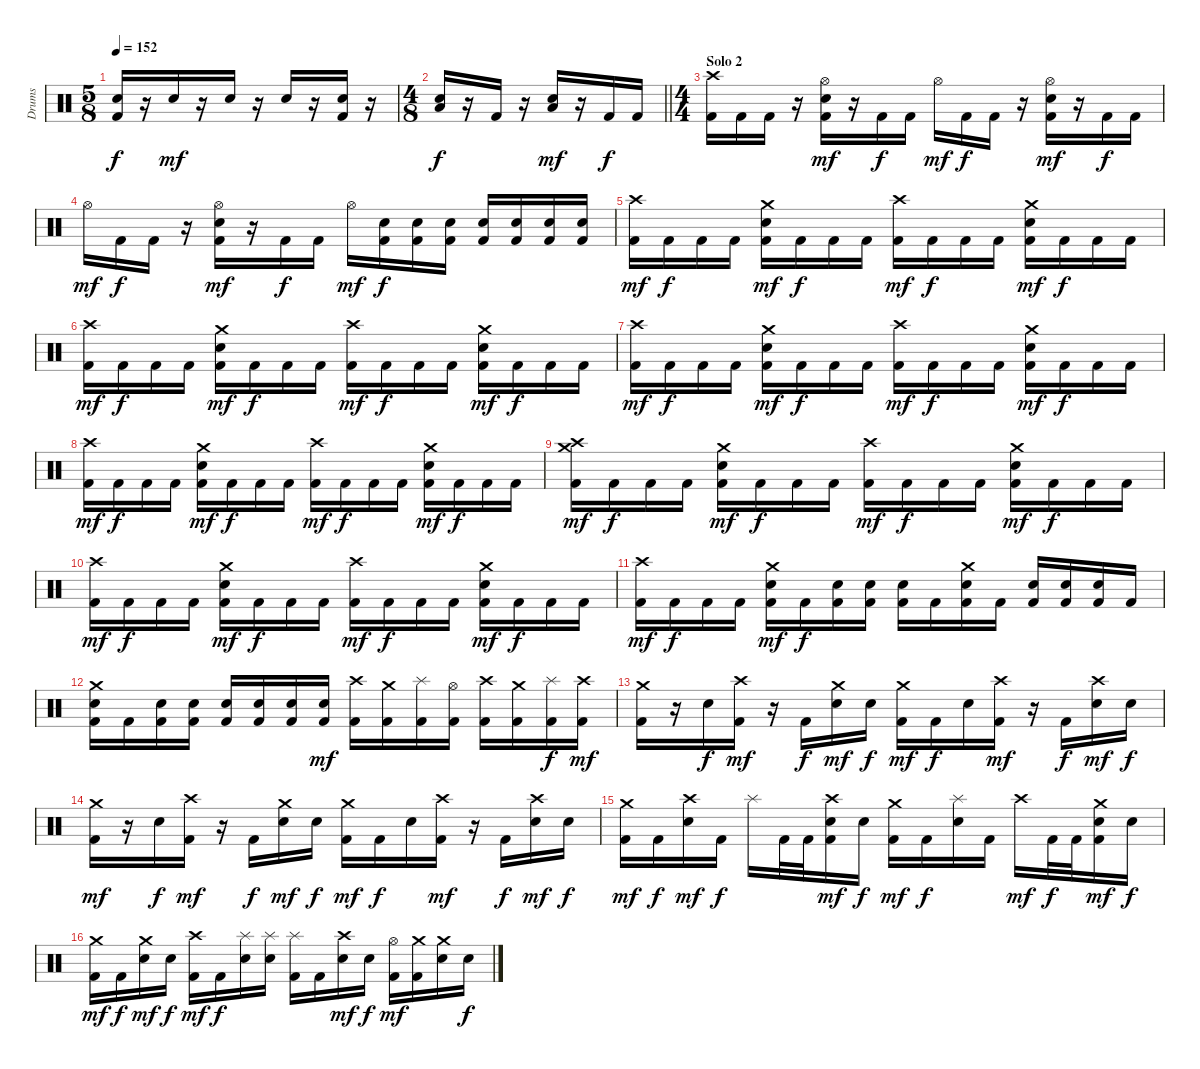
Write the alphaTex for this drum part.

\track ("Drums" "Drums") {instrument percussion}
\staff {score}
\articulation defaults
\ts (5 8)
\tempo 152
\clef neutral
\ks c
("Snare (hit) 2" "Kick (hit) 2").16{dy f} r.16 "Snare (hit) 2".16{dy mf} r.16 "Snare (hit) 2".16 r.16 "Snare (hit) 2".16 r.16 ("Snare (hit) 2" "Kick (hit) 2").16 r.16 |
\ts (4 8)
\barLineRight lightlight
("Low Floor Tom (hit)" "Snare (hit) 2").16{dy f} r.16 "Kick (hit) 2".16 r.16 ("Low Floor Tom (hit)" "Snare (hit) 2").16{dy mf} r.16 "Kick (hit) 2".16{dy f} "Kick (hit) 2".16 |
\ts (4 4)
\section ("" "Solo 2")
("Crash high (hit)" "Kick (hit) 2").16 "Kick (hit) 2".16 "Kick (hit) 2".16 r.16 ("Hi-Hat (open)" "Snare (hit) 2" "Kick (hit) 2").16{dy mf} r.16 "Kick (hit) 2".16{dy f} "Kick (hit) 2".16 "Hi-Hat (open)".16{dy mf} "Kick (hit) 2".16{dy f} "Kick (hit) 2".16 r.16 ("Hi-Hat (open)" "Snare (hit) 2" "Kick (hit) 2").16{dy mf} r.16 "Kick (hit) 2".16{dy f} "Kick (hit) 2".16 |
"Hi-Hat (open)".16{dy mf} "Kick (hit) 2".16{dy f} "Kick (hit) 2".16 r.16 ("Hi-Hat (open)" "Snare (hit) 2" "Kick (hit) 2").16{dy mf} r.16 "Kick (hit) 2".16{dy f} "Kick (hit) 2".16 "Hi-Hat (open)".16{dy mf} ("Snare (hit) 2" "Kick (hit) 2").16{dy f} ("Snare (hit) 2" "Kick (hit) 2").16 ("Snare (hit) 2" "Kick (hit) 2").16 ("Snare (hit) 2" "Kick (hit) 2").16 ("Snare (hit) 2" "Kick (hit) 2").16 ("Snare (hit) 2" "Kick (hit) 2").16 ("Snare (hit) 2" "Kick (hit) 2").16 |
("Crash high (hit)" "Kick (hit) 2").16{dy mf} "Kick (hit) 2".16{dy f} "Kick (hit) 2".16 "Kick (hit) 2".16 ("Crash medium (hit)" "Snare (hit) 2" "Kick (hit) 2").16{dy mf} "Kick (hit) 2".16{dy f} "Kick (hit) 2".16 "Kick (hit) 2".16 ("Crash high (hit)" "Kick (hit) 2").16{dy mf} "Kick (hit) 2".16{dy f} "Kick (hit) 2".16 "Kick (hit) 2".16 ("Crash medium (hit)" "Snare (hit) 2" "Kick (hit) 2").16{dy mf} "Kick (hit) 2".16{dy f} "Kick (hit) 2".16 "Kick (hit) 2".16 |
("Crash high (hit)" "Kick (hit) 2").16{dy mf} "Kick (hit) 2".16{dy f} "Kick (hit) 2".16 "Kick (hit) 2".16 ("Crash medium (hit)" "Snare (hit) 2" "Kick (hit) 2").16{dy mf} "Kick (hit) 2".16{dy f} "Kick (hit) 2".16 "Kick (hit) 2".16 ("Crash high (hit)" "Kick (hit) 2").16{dy mf} "Kick (hit) 2".16{dy f} "Kick (hit) 2".16 "Kick (hit) 2".16 ("Crash medium (hit)" "Snare (hit) 2" "Kick (hit) 2").16{dy mf} "Kick (hit) 2".16{dy f} "Kick (hit) 2".16 "Kick (hit) 2".16 |
("Crash high (hit)" "Kick (hit) 2").16{dy mf} "Kick (hit) 2".16{dy f} "Kick (hit) 2".16 "Kick (hit) 2".16 ("Crash medium (hit)" "Snare (hit) 2" "Kick (hit) 2").16{dy mf} "Kick (hit) 2".16{dy f} "Kick (hit) 2".16 "Kick (hit) 2".16 ("Crash high (hit)" "Kick (hit) 2").16{dy mf} "Kick (hit) 2".16{dy f} "Kick (hit) 2".16 "Kick (hit) 2".16 ("Crash medium (hit)" "Snare (hit) 2" "Kick (hit) 2").16{dy mf} "Kick (hit) 2".16{dy f} "Kick (hit) 2".16 "Kick (hit) 2".16 |
("Crash high (hit)" "Kick (hit) 2").16{dy mf} "Kick (hit) 2".16{dy f} "Kick (hit) 2".16 "Kick (hit) 2".16 ("Crash medium (hit)" "Snare (hit) 2" "Kick (hit) 2").16{dy mf} "Kick (hit) 2".16{dy f} "Kick (hit) 2".16 "Kick (hit) 2".16 ("Crash high (hit)" "Kick (hit) 2").16{dy mf} "Kick (hit) 2".16{dy f} "Kick (hit) 2".16 "Kick (hit) 2".16 ("Crash medium (hit)" "Snare (hit) 2" "Kick (hit) 2").16{dy mf} "Kick (hit) 2".16{dy f} "Kick (hit) 2".16 "Kick (hit) 2".16 |
("Crash medium (hit)" "Crash high (hit)" "Kick (hit) 2").16{dy mf} "Kick (hit) 2".16{dy f} "Kick (hit) 2".16 "Kick (hit) 2".16 ("Crash medium (hit)" "Snare (hit) 2" "Kick (hit) 2").16{dy mf} "Kick (hit) 2".16{dy f} "Kick (hit) 2".16 "Kick (hit) 2".16 ("Crash high (hit)" "Kick (hit) 2").16{dy mf} "Kick (hit) 2".16{dy f} "Kick (hit) 2".16 "Kick (hit) 2".16 ("Crash medium (hit)" "Snare (hit) 2" "Kick (hit) 2").16{dy mf} "Kick (hit) 2".16{dy f} "Kick (hit) 2".16 "Kick (hit) 2".16 |
("Crash high (hit)" "Kick (hit) 2").16{dy mf} "Kick (hit) 2".16{dy f} "Kick (hit) 2".16 "Kick (hit) 2".16 ("Crash medium (hit)" "Snare (hit) 2" "Kick (hit) 2").16{dy mf} "Kick (hit) 2".16{dy f} "Kick (hit) 2".16 "Kick (hit) 2".16 ("Crash high (hit)" "Kick (hit) 2").16{dy mf} "Kick (hit) 2".16{dy f} "Kick (hit) 2".16 "Kick (hit) 2".16 ("Crash medium (hit)" "Snare (hit) 2" "Kick (hit) 2").16{dy mf} "Kick (hit) 2".16{dy f} "Kick (hit) 2".16 "Kick (hit) 2".16 |
("Crash high (hit)" "Kick (hit) 2").16{dy mf} "Kick (hit) 2".16{dy f} "Kick (hit) 2".16 "Kick (hit) 2".16 ("Crash medium (hit)" "Snare (hit) 2" "Kick (hit) 2").16{dy mf} "Kick (hit) 2".16{dy f} ("Snare (hit) 2" "Kick (hit) 2").16 ("Snare (hit) 2" "Kick (hit) 2").16 ("Snare (hit) 2" "Kick (hit) 2").16 "Kick (hit) 2".16 ("Crash medium (hit)" "Snare (hit) 2" "Kick (hit) 2").16 "Kick (hit) 2".16 ("Snare (hit) 2" "Kick (hit) 2").16 ("Snare (hit) 2" "Kick (hit) 2").16 ("Snare (hit) 2" "Kick (hit) 2").16 "Kick (hit) 2".16 |
("Crash medium (hit)" "Snare (hit) 2" "Kick (hit) 2").16 "Kick (hit) 2".16 ("Snare (hit) 2" "Kick (hit) 2").16 ("Snare (hit) 2" "Kick (hit) 2").16 ("Snare (hit) 2" "Kick (hit) 2").16 ("Snare (hit) 2" "Kick (hit) 2").16 ("Snare (hit) 2" "Kick (hit) 2").16 ("Snare (hit) 2" "Kick (hit) 2").16{dy mf} ("Crash high (hit)" "Kick (hit) 2").16 ("Crash medium (hit)" "Kick (hit) 2").16 ("Splash (hit)" "Kick (hit) 2").16 ("Hi-Hat (open)" "Kick (hit) 2").16 ("Crash high (hit)" "Kick (hit) 2").16 ("Crash medium (hit)" "Kick (hit) 2").16 ("Splash (hit)" "Kick (hit) 2").16{dy f} ("Crash high (hit)" "Kick (hit) 2").16{dy mf} |
("Crash medium (hit)" "Kick (hit) 2").16 r.16 "Snare (hit) 2".16{dy f} ("Crash high (hit)" "Kick (hit) 2").16{dy mf} r.16 "Kick (hit) 2".16{dy f} ("Crash medium (hit)" "Snare (hit) 2").16{dy mf} "Snare (hit) 2".16{dy f} ("Crash medium (hit)" "Kick (hit) 2").16{dy mf} "Kick (hit) 2".16{dy f} "Snare (hit) 2".16 ("Crash high (hit)" "Kick (hit) 2").16{dy mf} r.16 "Kick (hit) 2".16{dy f} ("Crash high (hit)" "Snare (hit) 2").16{dy mf} "Snare (hit) 2".16{dy f} |
("Crash medium (hit)" "Kick (hit) 2").16{dy mf} r.16 "Snare (hit) 2".16{dy f} ("Crash high (hit)" "Kick (hit) 2").16{dy mf} r.16 "Kick (hit) 2".16{dy f} ("Crash medium (hit)" "Snare (hit) 2").16{dy mf} "Snare (hit) 2".16{dy f} ("Crash medium (hit)" "Kick (hit) 2").16{dy mf} "Kick (hit) 2".16{dy f} "Snare (hit) 2".16 ("Crash high (hit)" "Kick (hit) 2").16{dy mf} r.16 "Kick (hit) 2".16{dy f} ("Crash high (hit)" "Snare (hit) 2").16{dy mf} "Snare (hit) 2".16{dy f} |
("Crash medium (hit)" "Kick (hit) 2").16{dy mf} "Kick (hit) 2".16{dy f} ("Crash high (hit)" "Snare (hit) 2").16{dy mf} "Kick (hit) 2".16{dy f} "Splash (hit)".16 "Kick (hit) 2".32 "Kick (hit) 2".32 ("Crash high (hit)" "Snare (hit) 2" "Kick (hit) 2").16{dy mf} "Snare (hit) 2".16{dy f} ("Crash medium (hit)" "Kick (hit) 2").16{dy mf} "Kick (hit) 2".16{dy f} ("Splash (hit)" "Snare (hit) 2").16 "Kick (hit) 2".16 "Crash high (hit)".16{dy mf} "Kick (hit) 2".32{dy f} "Kick (hit) 2".32 ("Crash medium (hit)" "Snare (hit) 2" "Kick (hit) 2").16{dy mf} "Snare (hit) 2".16{dy f} |
("Crash medium (hit)" "Kick (hit) 2").16{dy mf} "Kick (hit) 2".16{dy f} ("Crash medium (hit)" "Snare (hit) 2").16{dy mf} "Snare (hit) 2".16{dy f} ("Crash high (hit)" "Kick (hit) 2").16{dy mf} "Kick (hit) 2".16{dy f} ("Splash (hit)" "Snare (hit) 2").16 ("Splash (hit)" "Snare (hit) 2").16 ("Splash (hit)" "Kick (hit) 2").16 "Kick (hit) 2".16 ("Crash high (hit)" "Snare (hit) 2").16{dy mf} "Snare (hit) 2".16{dy f} ("Hi-Hat (open)" "Kick (hit) 2").16{dy mf} ("Crash medium (hit)" "Kick (hit) 2").16 ("Crash medium (hit)" "Snare (hit) 2").16 "Snare (hit) 2".16{dy f}
